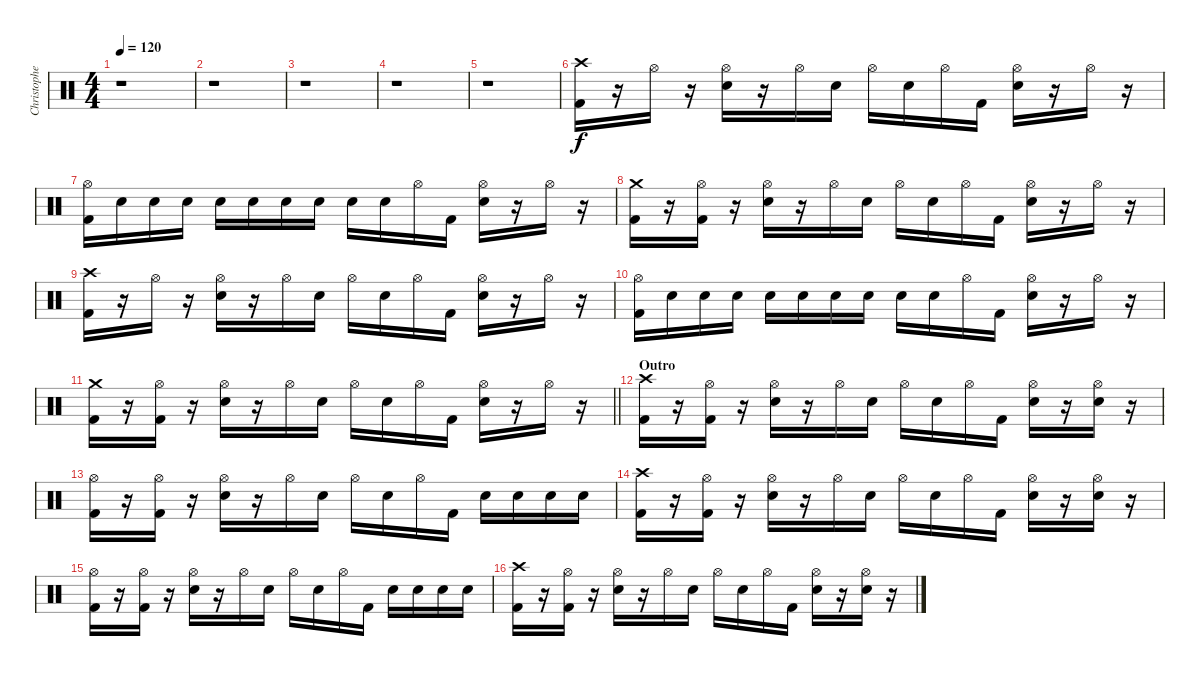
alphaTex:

\track ("Christopher - Drums" "Christophe") {instrument percussion}
\staff {score}
\articulation defaults
\ts (4 4)
\tempo 120
\clef neutral
\ks c
r.1{dy f} |
r.1 |
r.1 |
r.1 |
r.1 |
("Crash high (hit)" "Kick (hit) 2").16 r.16 "Hi-Hat (open)".16 r.16 ("Hi-Hat (open)" "Electric Snare (hit)").16 r.16 "Hi-Hat (open)".16 "Electric Snare (hit)".16 "Hi-Hat (open)".16 "Electric Snare (hit)".16 "Hi-Hat (open)".16 "Kick (hit) 2".16 ("Hi-Hat (open)" "Electric Snare (hit)").16 r.16 "Hi-Hat (open)".16 r.16 |
("Hi-Hat (open)" "Kick (hit) 2").16 "Electric Snare (hit)".16 "Electric Snare (hit)".16 "Electric Snare (hit)".16 "Electric Snare (hit)".16 "Electric Snare (hit)".16 "Electric Snare (hit)".16 "Electric Snare (hit)".16 "Electric Snare (hit)".16 "Electric Snare (hit)".16 "Hi-Hat (open)".16 "Kick (hit) 2".16 ("Hi-Hat (open)" "Electric Snare (hit)").16 r.16 "Hi-Hat (open)".16 r.16 |
("Crash medium (hit)" "Kick (hit) 2").16 r.16 ("Hi-Hat (open)" "Kick (hit) 2").16 r.16 ("Hi-Hat (open)" "Electric Snare (hit)").16 r.16 "Hi-Hat (open)".16 "Electric Snare (hit)".16 "Hi-Hat (open)".16 "Electric Snare (hit)".16 "Hi-Hat (open)".16 "Kick (hit) 2".16 ("Hi-Hat (open)" "Electric Snare (hit)").16 r.16 "Hi-Hat (open)".16 r.16 |
("Crash high (hit)" "Kick (hit) 2").16 r.16 "Hi-Hat (open)".16 r.16 ("Hi-Hat (open)" "Electric Snare (hit)").16 r.16 "Hi-Hat (open)".16 "Electric Snare (hit)".16 "Hi-Hat (open)".16 "Electric Snare (hit)".16 "Hi-Hat (open)".16 "Kick (hit) 2".16 ("Hi-Hat (open)" "Electric Snare (hit)").16 r.16 "Hi-Hat (open)".16 r.16 |
("Hi-Hat (open)" "Kick (hit) 2").16 "Electric Snare (hit)".16 "Electric Snare (hit)".16 "Electric Snare (hit)".16 "Electric Snare (hit)".16 "Electric Snare (hit)".16 "Electric Snare (hit)".16 "Electric Snare (hit)".16 "Electric Snare (hit)".16 "Electric Snare (hit)".16 "Hi-Hat (open)".16 "Kick (hit) 2".16 ("Hi-Hat (open)" "Electric Snare (hit)").16 r.16 "Hi-Hat (open)".16 r.16 |
\barLineRight lightlight
("Crash medium (hit)" "Kick (hit) 2").16 r.16 ("Hi-Hat (open)" "Kick (hit) 2").16 r.16 ("Hi-Hat (open)" "Electric Snare (hit)").16 r.16 "Hi-Hat (open)".16 "Electric Snare (hit)".16 "Hi-Hat (open)".16 "Electric Snare (hit)".16 "Hi-Hat (open)".16 "Kick (hit) 2".16 ("Hi-Hat (open)" "Electric Snare (hit)").16 r.16 "Hi-Hat (open)".16 r.16 |
\section ("" "Outro")
("Crash high (hit)" "Kick (hit) 2").16 r.16 ("Hi-Hat (open)" "Kick (hit) 2").16 r.16 ("Hi-Hat (open)" "Electric Snare (hit)").16 r.16 "Hi-Hat (open)".16 "Electric Snare (hit)".16 "Hi-Hat (open)".16 "Electric Snare (hit)".16 "Hi-Hat (open)".16 "Kick (hit) 2".16 ("Hi-Hat (open)" "Electric Snare (hit)").16 r.16 ("Hi-Hat (open)" "Electric Snare (hit)").16 r.16 |
("Hi-Hat (open)" "Kick (hit) 2").16 r.16 ("Hi-Hat (open)" "Kick (hit) 2").16 r.16 ("Hi-Hat (open)" "Electric Snare (hit)").16 r.16 "Hi-Hat (open)".16 "Electric Snare (hit)".16 "Hi-Hat (open)".16 "Electric Snare (hit)".16 "Hi-Hat (open)".16 "Kick (hit) 2".16 "Electric Snare (hit)".16 "Electric Snare (hit)".16 "Electric Snare (hit)".16 "Electric Snare (hit)".16 |
("Crash high (hit)" "Kick (hit) 2").16 r.16 ("Hi-Hat (open)" "Kick (hit) 2").16 r.16 ("Hi-Hat (open)" "Electric Snare (hit)").16 r.16 "Hi-Hat (open)".16 "Electric Snare (hit)".16 "Hi-Hat (open)".16 "Electric Snare (hit)".16 "Hi-Hat (open)".16 "Kick (hit) 2".16 ("Hi-Hat (open)" "Electric Snare (hit)").16 r.16 ("Hi-Hat (open)" "Electric Snare (hit)").16 r.16 |
("Hi-Hat (open)" "Kick (hit) 2").16 r.16 ("Hi-Hat (open)" "Kick (hit) 2").16 r.16 ("Hi-Hat (open)" "Electric Snare (hit)").16 r.16 "Hi-Hat (open)".16 "Electric Snare (hit)".16 "Hi-Hat (open)".16 "Electric Snare (hit)".16 "Hi-Hat (open)".16 "Kick (hit) 2".16 "Electric Snare (hit)".16 "Electric Snare (hit)".16 "Electric Snare (hit)".16 "Electric Snare (hit)".16 |
("Crash high (hit)" "Kick (hit) 2").16 r.16 ("Hi-Hat (open)" "Kick (hit) 2").16 r.16 ("Hi-Hat (open)" "Electric Snare (hit)").16 r.16 "Hi-Hat (open)".16 "Electric Snare (hit)".16 "Hi-Hat (open)".16 "Electric Snare (hit)".16 "Hi-Hat (open)".16 "Kick (hit) 2".16 ("Hi-Hat (open)" "Electric Snare (hit)").16 r.16 ("Hi-Hat (open)" "Electric Snare (hit)").16 r.16
